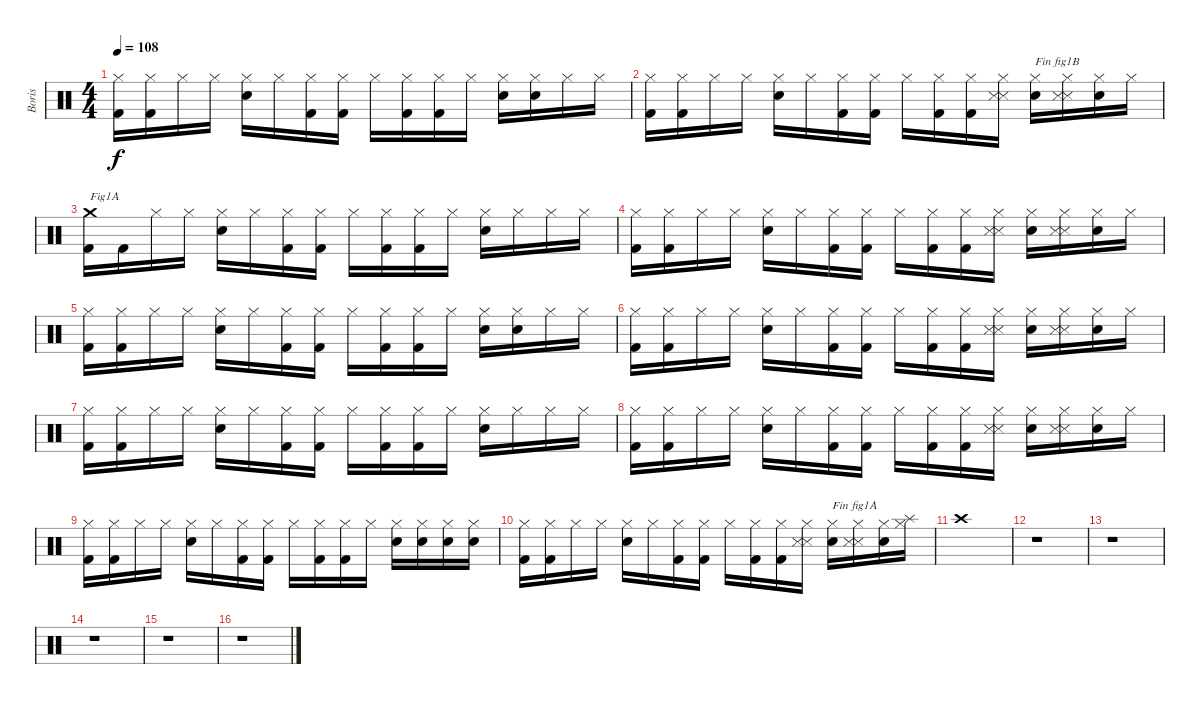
\track ("Boris" "Boris") {instrument percussion}
\staff {score}
\articulation defaults
\ts (4 4)
\tempo 108
\clef neutral
\ks c
("Kick (hit) 2" "Hi-Hat (closed)").16{dy f} ("Kick (hit) 2" "Hi-Hat (closed)").16 "Hi-Hat (closed)".16 "Hi-Hat (closed)".16 ("Electric Snare (hit)" "Hi-Hat (closed)").16 "Hi-Hat (closed)".16 ("Kick (hit) 2" "Hi-Hat (closed)").16 ("Kick (hit) 2" "Hi-Hat (closed)").16 "Hi-Hat (closed)".16 ("Kick (hit) 2" "Hi-Hat (closed)").16 ("Kick (hit) 2" "Hi-Hat (closed)").16 "Hi-Hat (closed)".16 ("Electric Snare (hit)" "Hi-Hat (closed)").16 ("Electric Snare (hit)" "Hi-Hat (closed)").16 "Hi-Hat (closed)".16 "Hi-Hat (closed)".16 |
("Kick (hit) 2" "Hi-Hat (closed)").16 ("Kick (hit) 2" "Hi-Hat (closed)").16 "Hi-Hat (closed)".16 "Hi-Hat (closed)".16 ("Electric Snare (hit)" "Hi-Hat (closed)").16 "Hi-Hat (closed)".16 ("Kick (hit) 2" "Hi-Hat (closed)").16 ("Kick (hit) 2" "Hi-Hat (closed)").16 "Hi-Hat (closed)".16 ("Kick (hit) 2" "Hi-Hat (closed)").16 ("Kick (hit) 2" "Hi-Hat (closed)").16 ("Metronome (hit)" "Snare (side stick) 3" "Hi-Hat (closed)").16 ("Electric Snare (hit)" "Hi-Hat (closed)").16{txt "Fin fig1B"} ("Metronome (hit)" "Snare (side stick) 3" "Hi-Hat (closed)").16 ("Electric Snare (hit)" "Hi-Hat (closed)").16 "Hi-Hat (closed)".16 |
("Kick (hit) 2" "Crash medium (hit)").16{txt "Fig1A"} "Kick (hit) 2".16 "Hi-Hat (closed)".16 "Hi-Hat (closed)".16 ("Electric Snare (hit)" "Hi-Hat (closed)").16 "Hi-Hat (closed)".16 ("Kick (hit) 2" "Hi-Hat (closed)").16 ("Kick (hit) 2" "Hi-Hat (closed)").16 "Hi-Hat (closed)".16 ("Kick (hit) 2" "Hi-Hat (closed)").16 ("Kick (hit) 2" "Hi-Hat (closed)").16 "Hi-Hat (closed)".16 ("Electric Snare (hit)" "Hi-Hat (closed)").16 "Hi-Hat (closed)".16 "Hi-Hat (closed)".16 "Hi-Hat (closed)".16 |
("Kick (hit) 2" "Hi-Hat (closed)").16 ("Kick (hit) 2" "Hi-Hat (closed)").16 "Hi-Hat (closed)".16 "Hi-Hat (closed)".16 ("Electric Snare (hit)" "Hi-Hat (closed)").16 "Hi-Hat (closed)".16 ("Kick (hit) 2" "Hi-Hat (closed)").16 ("Kick (hit) 2" "Hi-Hat (closed)").16 "Hi-Hat (closed)".16 ("Kick (hit) 2" "Hi-Hat (closed)").16 ("Kick (hit) 2" "Hi-Hat (closed)").16 ("Metronome (hit)" "Snare (side stick) 3" "Hi-Hat (closed)").16 ("Electric Snare (hit)" "Hi-Hat (closed)").16 ("Metronome (hit)" "Snare (side stick) 3" "Hi-Hat (closed)").16 ("Electric Snare (hit)" "Hi-Hat (closed)").16 "Hi-Hat (closed)".16 |
("Kick (hit) 2" "Hi-Hat (closed)").16 ("Kick (hit) 2" "Hi-Hat (closed)").16 "Hi-Hat (closed)".16 "Hi-Hat (closed)".16 ("Electric Snare (hit)" "Hi-Hat (closed)").16 "Hi-Hat (closed)".16 ("Kick (hit) 2" "Hi-Hat (closed)").16 ("Kick (hit) 2" "Hi-Hat (closed)").16 "Hi-Hat (closed)".16 ("Kick (hit) 2" "Hi-Hat (closed)").16 ("Kick (hit) 2" "Hi-Hat (closed)").16 "Hi-Hat (closed)".16 ("Electric Snare (hit)" "Hi-Hat (closed)").16 ("Electric Snare (hit)" "Hi-Hat (closed)").16 "Hi-Hat (closed)".16 "Hi-Hat (closed)".16 |
("Kick (hit) 2" "Hi-Hat (closed)").16 ("Kick (hit) 2" "Hi-Hat (closed)").16 "Hi-Hat (closed)".16 "Hi-Hat (closed)".16 ("Electric Snare (hit)" "Hi-Hat (closed)").16 "Hi-Hat (closed)".16 ("Kick (hit) 2" "Hi-Hat (closed)").16 ("Kick (hit) 2" "Hi-Hat (closed)").16 "Hi-Hat (closed)".16 ("Kick (hit) 2" "Hi-Hat (closed)").16 ("Kick (hit) 2" "Hi-Hat (closed)").16 ("Metronome (hit)" "Snare (side stick) 3" "Hi-Hat (closed)").16 ("Electric Snare (hit)" "Hi-Hat (closed)").16 ("Metronome (hit)" "Snare (side stick) 3" "Hi-Hat (closed)").16 ("Electric Snare (hit)" "Hi-Hat (closed)").16 "Hi-Hat (closed)".16 |
("Kick (hit) 2" "Hi-Hat (closed)").16 ("Kick (hit) 2" "Hi-Hat (closed)").16 "Hi-Hat (closed)".16 "Hi-Hat (closed)".16 ("Electric Snare (hit)" "Hi-Hat (closed)").16 "Hi-Hat (closed)".16 ("Kick (hit) 2" "Hi-Hat (closed)").16 ("Kick (hit) 2" "Hi-Hat (closed)").16 "Hi-Hat (closed)".16 ("Kick (hit) 2" "Hi-Hat (closed)").16 ("Kick (hit) 2" "Hi-Hat (closed)").16 "Hi-Hat (closed)".16 ("Electric Snare (hit)" "Hi-Hat (closed)").16 "Hi-Hat (closed)".16 "Hi-Hat (closed)".16 "Hi-Hat (closed)".16 |
("Kick (hit) 2" "Hi-Hat (closed)").16 ("Kick (hit) 2" "Hi-Hat (closed)").16 "Hi-Hat (closed)".16 "Hi-Hat (closed)".16 ("Electric Snare (hit)" "Hi-Hat (closed)").16 "Hi-Hat (closed)".16 ("Kick (hit) 2" "Hi-Hat (closed)").16 ("Kick (hit) 2" "Hi-Hat (closed)").16 "Hi-Hat (closed)".16 ("Kick (hit) 2" "Hi-Hat (closed)").16 ("Kick (hit) 2" "Hi-Hat (closed)").16 ("Metronome (hit)" "Snare (side stick) 3" "Hi-Hat (closed)").16 ("Electric Snare (hit)" "Hi-Hat (closed)").16 ("Metronome (hit)" "Snare (side stick) 3" "Hi-Hat (closed)").16 ("Electric Snare (hit)" "Hi-Hat (closed)").16 "Hi-Hat (closed)".16 |
("Kick (hit) 2" "Hi-Hat (closed)").16 ("Kick (hit) 2" "Hi-Hat (closed)").16 "Hi-Hat (closed)".16 "Hi-Hat (closed)".16 ("Electric Snare (hit)" "Hi-Hat (closed)").16 "Hi-Hat (closed)".16 ("Kick (hit) 2" "Hi-Hat (closed)").16 ("Kick (hit) 2" "Hi-Hat (closed)").16 "Hi-Hat (closed)".16 ("Kick (hit) 2" "Hi-Hat (closed)").16 ("Kick (hit) 2" "Hi-Hat (closed)").16 "Hi-Hat (closed)".16 ("Electric Snare (hit)" "Hi-Hat (closed)").16 ("Electric Snare (hit)" "Hi-Hat (closed)").16 ("Electric Snare (hit)" "Hi-Hat (closed)").16 ("Electric Snare (hit)" "Hi-Hat (closed)").16 |
("Kick (hit) 2" "Hi-Hat (closed)").16 ("Kick (hit) 2" "Hi-Hat (closed)").16 "Hi-Hat (closed)".16 "Hi-Hat (closed)".16 ("Electric Snare (hit)" "Hi-Hat (closed)").16 "Hi-Hat (closed)".16 ("Kick (hit) 2" "Hi-Hat (closed)").16 ("Kick (hit) 2" "Hi-Hat (closed)").16 "Hi-Hat (closed)".16 ("Kick (hit) 2" "Hi-Hat (closed)").16 ("Kick (hit) 2" "Hi-Hat (closed)").16 ("Metronome (hit)" "Snare (side stick) 3" "Hi-Hat (closed)").16 ("Electric Snare (hit)" "Hi-Hat (closed)").16{txt "Fin fig1A"} ("Metronome (hit)" "Snare (side stick) 3" "Hi-Hat (closed)").16 ("Electric Snare (hit)" "Hi-Hat (closed)").16 ("Hi-Hat (closed)" "Splash (hit)").16 |
"Crash high (hit)".1 |
r.1 |
r.1 |
r.1 |
r.1 |
r.1
